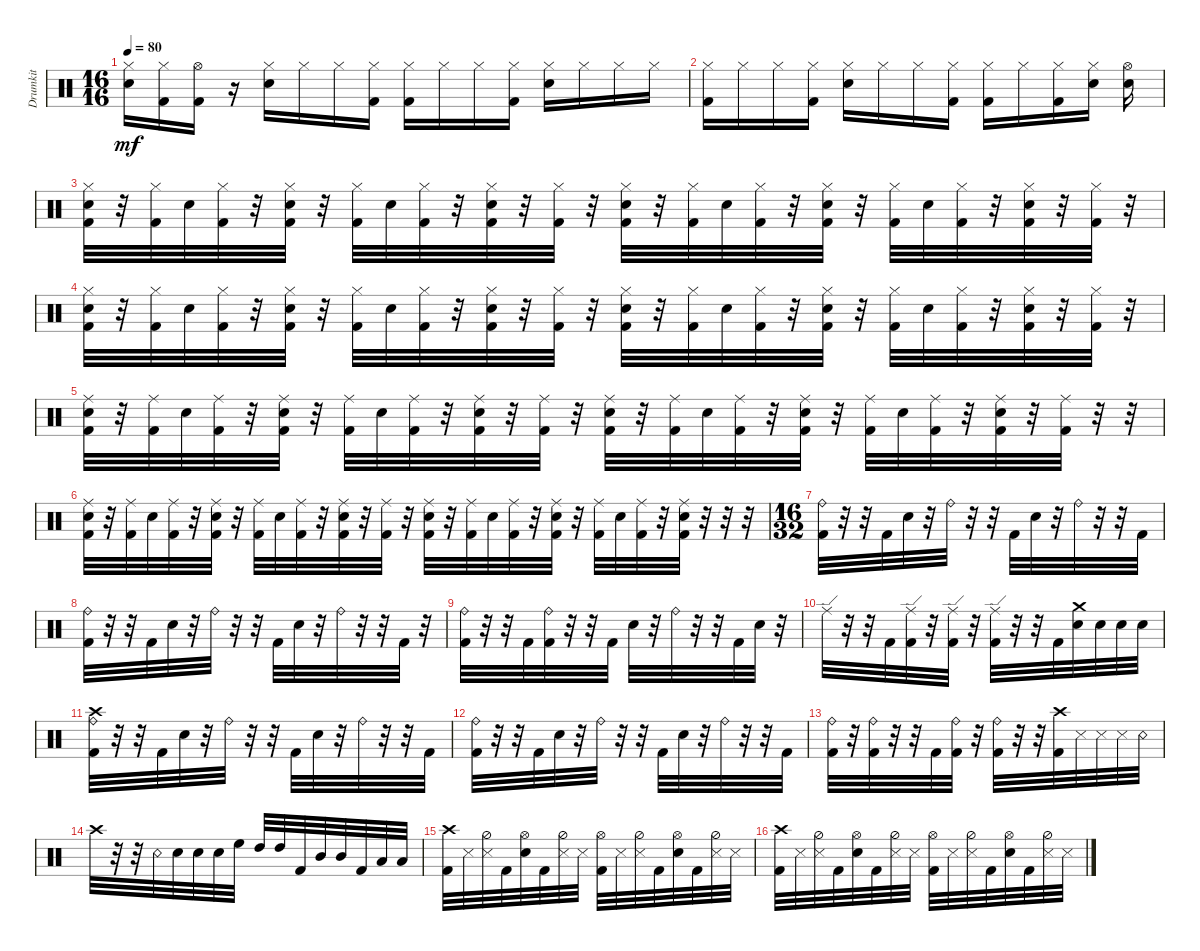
\track ("Drumkit" "Drumkit") {instrument percussion}
\staff {score}
\articulation defaults
\ts (16 16)
\tempo 80
\clef neutral
\ks c
("Snare (hit) 2" "Hi-Hat (closed)").16{dy mf} ("Kick (hit) 2" "Hi-Hat (closed)").16 ("Hi-Hat (open)" "Kick (hit) 2").16 r.16 ("Hi-Hat (closed)" "Snare (hit) 2").16 "Hi-Hat (closed)".16 "Hi-Hat (closed)".16 ("Hi-Hat (closed)" "Kick (hit) 2").16 ("Kick (hit) 2" "Hi-Hat (closed)").16 "Hi-Hat (closed)".16 "Hi-Hat (closed)".16 ("Kick (hit) 2" "Hi-Hat (closed)").16 ("Snare (hit) 2" "Hi-Hat (closed)").16 "Hi-Hat (closed)".16 "Hi-Hat (closed)".16 "Hi-Hat (closed)".16 |
("Hi-Hat (closed)" "Kick (hit) 2").16 "Hi-Hat (closed)".16 "Hi-Hat (closed)".16 ("Hi-Hat (closed)" "Kick (hit) 2").16 ("Hi-Hat (closed)" "Snare (hit) 2").16 "Hi-Hat (closed)".16 "Hi-Hat (closed)".16 ("Hi-Hat (closed)" "Kick (hit) 2").16 ("Kick (hit) 2" "Hi-Hat (closed)").16 "Hi-Hat (closed)".16 ("Hi-Hat (closed)" "Kick (hit) 2").16 ("Hi-Hat (closed)" "Snare (hit) 2").16 ("Snare (hit) 2" "Hi-Hat (open)").16 |
("Hi-Hat (closed)" "Kick (hit) 2" "Snare (hit) 2").32 r.32 ("Hi-Hat (closed)" "Kick (hit) 2").32 "Snare (hit) 2".32 ("Hi-Hat (closed)" "Kick (hit) 2").32 r.32 ("Hi-Hat (closed)" "Kick (hit) 2" "Snare (hit) 2").32 r.32 ("Hi-Hat (closed)" "Kick (hit) 2").32 "Snare (hit) 2".32 ("Hi-Hat (closed)" "Kick (hit) 2").32 r.32 ("Hi-Hat (closed)" "Kick (hit) 2" "Snare (hit) 2").32 r.32 ("Hi-Hat (closed)" "Kick (hit) 2").32 r.32 ("Hi-Hat (closed)" "Kick (hit) 2" "Snare (hit) 2").32 r.32 ("Hi-Hat (closed)" "Kick (hit) 2").32 "Snare (hit) 2".32 ("Hi-Hat (closed)" "Kick (hit) 2").32 r.32 ("Hi-Hat (closed)" "Kick (hit) 2" "Snare (hit) 2").32 r.32 ("Hi-Hat (closed)" "Kick (hit) 2").32 "Snare (hit) 2".32 ("Hi-Hat (closed)" "Kick (hit) 2").32 r.32 ("Hi-Hat (closed)" "Kick (hit) 2" "Snare (hit) 2").32 r.32 ("Hi-Hat (closed)" "Kick (hit) 2").32 r.32 |
("Hi-Hat (closed)" "Kick (hit) 2" "Snare (hit) 2").32 r.32 ("Hi-Hat (closed)" "Kick (hit) 2").32 "Snare (hit) 2".32 ("Hi-Hat (closed)" "Kick (hit) 2").32 r.32 ("Hi-Hat (closed)" "Kick (hit) 2" "Snare (hit) 2").32 r.32 ("Hi-Hat (closed)" "Kick (hit) 2").32 "Snare (hit) 2".32 ("Hi-Hat (closed)" "Kick (hit) 2").32 r.32 ("Hi-Hat (closed)" "Kick (hit) 2" "Snare (hit) 2").32 r.32 ("Hi-Hat (closed)" "Kick (hit) 2").32 r.32 ("Hi-Hat (closed)" "Kick (hit) 2" "Snare (hit) 2").32 r.32 ("Hi-Hat (closed)" "Kick (hit) 2").32 "Snare (hit) 2".32 ("Hi-Hat (closed)" "Kick (hit) 2").32 r.32 ("Hi-Hat (closed)" "Kick (hit) 2" "Snare (hit) 2").32 r.32 ("Hi-Hat (closed)" "Kick (hit) 2").32 "Snare (hit) 2".32 ("Hi-Hat (closed)" "Kick (hit) 2").32 r.32 ("Hi-Hat (closed)" "Kick (hit) 2" "Snare (hit) 2").32 r.32 ("Hi-Hat (closed)" "Kick (hit) 2").32 r.32 |
("Kick (hit) 2" "Snare (hit) 2" "Ride (middle)").32 r.32 ("Kick (hit) 2" "Ride (middle)").32 "Snare (hit) 2".32 ("Kick (hit) 2" "Ride (middle)").32 r.32 ("Kick (hit) 2" "Snare (hit) 2" "Ride (middle)").32 r.32 ("Kick (hit) 2" "Ride (middle)").32 "Snare (hit) 2".32 ("Kick (hit) 2" "Ride (middle)").32 r.32 ("Kick (hit) 2" "Snare (hit) 2" "Ride (middle)").32 r.32 ("Kick (hit) 2" "Ride (middle)").32 r.32 ("Kick (hit) 2" "Snare (hit) 2" "Ride (middle)").32 r.32 ("Kick (hit) 2" "Ride (middle)").32 "Snare (hit) 2".32 ("Kick (hit) 2" "Ride (middle)").32 r.32 ("Kick (hit) 2" "Snare (hit) 2" "Ride (middle)").32 r.32 ("Kick (hit) 2" "Ride (middle)").32 "Snare (hit) 2".32 ("Kick (hit) 2" "Ride (middle)").32 r.32 ("Kick (hit) 2" "Snare (hit) 2" "Ride (middle)").32 r.32 ("Kick (hit) 2" "Ride (middle)").32 r.32 r.32 |
("Kick (hit) 2" "Snare (hit) 2" "Ride (middle)").32 r.32 ("Kick (hit) 2" "Ride (middle)").32 "Snare (hit) 2".32 ("Kick (hit) 2" "Ride (middle)").32 r.32 ("Kick (hit) 2" "Snare (hit) 2" "Ride (middle)").32 r.32 ("Kick (hit) 2" "Ride (middle)").32 "Snare (hit) 2".32 ("Kick (hit) 2" "Ride (middle)").32 r.32 ("Kick (hit) 2" "Snare (hit) 2" "Ride (middle)").32 r.32 ("Kick (hit) 2" "Ride (middle)").32 r.32 ("Kick (hit) 2" "Snare (hit) 2" "Ride (middle)").32 r.32 ("Kick (hit) 2" "Ride (middle)").32 "Snare (hit) 2".32 ("Kick (hit) 2" "Ride (middle)").32 r.32 ("Kick (hit) 2" "Snare (hit) 2" "Ride (middle)").32 r.32 ("Kick (hit) 2" "Ride (middle)").32 "Snare (hit) 2".32 ("Kick (hit) 2" "Ride (middle)").32 r.32 ("Kick (hit) 2" "Snare (hit) 2" "Ride (middle)").32 r.32 r.32 r.32 |
\ts (16 32)
("Ride (bell)" "Kick (hit) 2").32 r.32 r.32 "Kick (hit) 2".32 "Snare (hit) 2".32 r.32 "Ride (bell)".32 r.32 r.32 "Kick (hit) 2".32 "Snare (hit) 2".32 r.32 "Ride (bell)".32 r.32 r.32 "Kick (hit) 2".32 |
("Ride (bell)" "Kick (hit) 2").32 r.32 r.32 "Kick (hit) 2".32 "Snare (hit) 2".32 r.32 "Ride (bell)".32 r.32 r.32 "Kick (hit) 2".32 "Snare (hit) 2".32 r.32 "Ride (bell)".32 r.32 r.32 "Kick (hit) 2".32 r.32 |
("Ride (bell)" "Kick (hit) 2").32 r.32 r.32 "Kick (hit) 2".32 ("Kick (hit) 2" "Ride (bell)").32 r.32 r.32 "Kick (hit) 2".32 "Snare (hit) 2".32 r.32 "Ride (bell)".32 r.32 r.32 "Kick (hit) 2".32 "Snare (hit) 2".32 r.32 |
"Ride (edge)".32 r.32 r.32 "Kick (hit) 2".32 ("Kick (hit) 2" "Ride (edge)").32 r.32 ("Kick (hit) 2" "Ride (edge)").32 r.32 ("Kick (hit) 2" "Ride (edge)").32 r.32 r.32 "Kick (hit) 2".32 ("Snare (hit) 2" "Crash medium (hit)").32 "Snare (hit) 2".32 "Snare (hit) 2".32 "Snare (hit) 2".32 |
("Ride (bell)" "Kick (hit) 2" "Crash high (hit)").32 r.32 r.32 "Kick (hit) 2".32 "Snare (hit) 2".32 r.32 "Ride (bell)".32 r.32 r.32 "Kick (hit) 2".32 "Snare (hit) 2".32 r.32 "Ride (bell)".32 r.32 r.32 "Kick (hit) 2".32 |
("Ride (bell)" "Kick (hit) 2").32 r.32 r.32 "Kick (hit) 2".32 "Snare (hit) 2".32 r.32 "Ride (bell)".32 r.32 r.32 "Kick (hit) 2".32 "Snare (hit) 2".32 r.32 "Ride (bell)".32 r.32 r.32 "Kick (hit) 2".32 |
("Kick (hit) 2" "Ride (bell)").32 r.32 ("Ride (bell)" "Kick (hit) 2").32 r.32 r.32 "Kick (hit) 2".32 ("Kick (hit) 2" "Ride (bell)").32 r.32 ("Ride (bell)" "Kick (hit) 2").32 r.32 r.32 ("Kick (hit) 2" "Crash high (hit)").32 "Snare (side stick) 3".32 "Snare (side stick) 3".32 "Snare (side stick) 3".32 "Snare (rim shot)".32 |
"Crash high (hit)".32 r.32 r.32 "Snare (rim shot)".32 "Snare (hit) 2".32 "Snare (hit) 2".32 "Snare (hit) 2".32 "High Floor Tom (hit)".32 "High Tom (hit)".32 "High Tom (hit)".32 "Kick (hit) 2".32 "Mid Tom (hit)".32 "Mid Tom (hit)".32 "Kick (hit) 2".32 "Low Tom (hit)".32 "Low Tom (hit)".32 |
("Kick (hit) 2" "Crash high (hit)").32 "Snare (side stick) 3".32 ("Snare (side stick) 3" "Hi-Hat (half)").32 "Kick (hit) 2".32 ("Snare (hit) 2" "Hi-Hat (open)").32 "Kick (hit) 2".32 ("Snare (side stick) 3" "Hi-Hat (half)").32 "Snare (side stick) 3".32 ("Hi-Hat (open)" "Kick (hit) 2").32 "Snare (side stick) 3".32 ("Snare (side stick) 3" "Hi-Hat (half)").32 "Kick (hit) 2".32 ("Snare (hit) 2" "Hi-Hat (open)").32 "Kick (hit) 2".32 ("Hi-Hat (half)" "Snare (side stick) 3").32 "Snare (side stick) 3".32 |
("Kick (hit) 2" "Crash high (hit)").32 "Snare (side stick) 3".32 ("Snare (side stick) 3" "Hi-Hat (half)").32 "Kick (hit) 2".32 ("Snare (hit) 2" "Hi-Hat (open)").32 "Kick (hit) 2".32 ("Snare (side stick) 3" "Hi-Hat (half)").32 "Snare (side stick) 3".32 ("Hi-Hat (open)" "Kick (hit) 2").32 "Snare (side stick) 3".32 ("Snare (side stick) 3" "Hi-Hat (half)").32 "Kick (hit) 2".32 ("Snare (hit) 2" "Hi-Hat (open)").32 "Kick (hit) 2".32 ("Hi-Hat (half)" "Snare (side stick) 3").32 "Snare (side stick) 3".32
